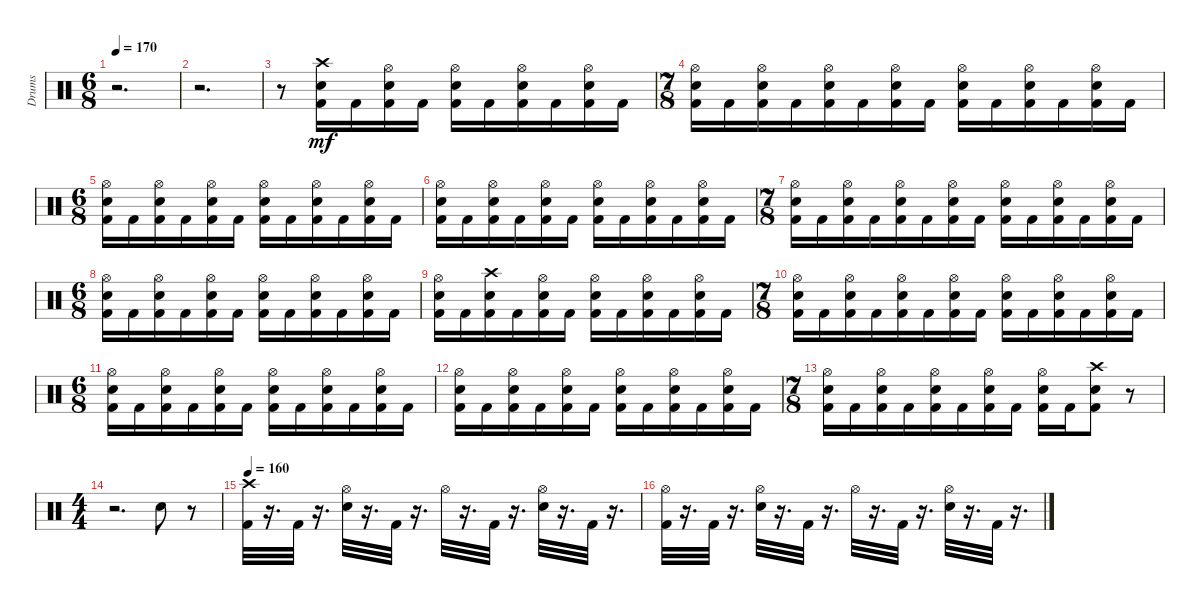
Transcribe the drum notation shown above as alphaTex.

\track ("Drums               " "Drums     ") {instrument percussion}
\staff {score}
\articulation defaults
\ts (6 8)
\tempo 170
\clef neutral
\ks c
r.2{d dy mf} |
r.2{d} |
r.8 ("Kick (hit) 2" "Snare (hit) 2" "Crash high (hit)").16 "Kick (hit) 2".16 ("Kick (hit) 2" "Snare (hit) 2" "Hi-Hat (open)").16 "Kick (hit) 2".16 ("Kick (hit) 2" "Snare (hit) 2" "Hi-Hat (open)").16 "Kick (hit) 2".16 ("Kick (hit) 2" "Snare (hit) 2" "Hi-Hat (open)").16 "Kick (hit) 2".16 ("Kick (hit) 2" "Snare (hit) 2" "Hi-Hat (open)").16 "Kick (hit) 2".16 |
\ts (7 8)
("Kick (hit) 2" "Snare (hit) 2" "Hi-Hat (open)").16 "Kick (hit) 2".16 ("Kick (hit) 2" "Snare (hit) 2" "Hi-Hat (open)").16 "Kick (hit) 2".16 ("Kick (hit) 2" "Snare (hit) 2" "Hi-Hat (open)").16 "Kick (hit) 2".16 ("Kick (hit) 2" "Snare (hit) 2" "Hi-Hat (open)").16 "Kick (hit) 2".16 ("Kick (hit) 2" "Snare (hit) 2" "Hi-Hat (open)").16 "Kick (hit) 2".16 ("Kick (hit) 2" "Snare (hit) 2" "Hi-Hat (open)").16 "Kick (hit) 2".16 ("Kick (hit) 2" "Snare (hit) 2" "Hi-Hat (open)").16 "Kick (hit) 2".16 |
\ts (6 8)
("Kick (hit) 2" "Snare (hit) 2" "Hi-Hat (open)").16 "Kick (hit) 2".16 ("Kick (hit) 2" "Snare (hit) 2" "Hi-Hat (open)").16 "Kick (hit) 2".16 ("Kick (hit) 2" "Snare (hit) 2" "Hi-Hat (open)").16 "Kick (hit) 2".16 ("Kick (hit) 2" "Snare (hit) 2" "Hi-Hat (open)").16 "Kick (hit) 2".16 ("Kick (hit) 2" "Snare (hit) 2" "Hi-Hat (open)").16 "Kick (hit) 2".16 ("Kick (hit) 2" "Snare (hit) 2" "Hi-Hat (open)").16 "Kick (hit) 2".16 |
("Kick (hit) 2" "Snare (hit) 2" "Hi-Hat (open)").16 "Kick (hit) 2".16 ("Kick (hit) 2" "Snare (hit) 2" "Hi-Hat (open)").16 "Kick (hit) 2".16 ("Kick (hit) 2" "Snare (hit) 2" "Hi-Hat (open)").16 "Kick (hit) 2".16 ("Kick (hit) 2" "Snare (hit) 2" "Hi-Hat (open)").16 "Kick (hit) 2".16 ("Kick (hit) 2" "Snare (hit) 2" "Hi-Hat (open)").16 "Kick (hit) 2".16 ("Kick (hit) 2" "Snare (hit) 2" "Hi-Hat (open)").16 "Kick (hit) 2".16 |
\ts (7 8)
("Kick (hit) 2" "Snare (hit) 2" "Hi-Hat (open)").16 "Kick (hit) 2".16 ("Kick (hit) 2" "Snare (hit) 2" "Hi-Hat (open)").16 "Kick (hit) 2".16 ("Kick (hit) 2" "Snare (hit) 2" "Hi-Hat (open)").16 "Kick (hit) 2".16 ("Kick (hit) 2" "Snare (hit) 2" "Hi-Hat (open)").16 "Kick (hit) 2".16 ("Kick (hit) 2" "Snare (hit) 2" "Hi-Hat (open)").16 "Kick (hit) 2".16 ("Kick (hit) 2" "Snare (hit) 2" "Hi-Hat (open)").16 "Kick (hit) 2".16 ("Kick (hit) 2" "Snare (hit) 2" "Hi-Hat (open)").16 "Kick (hit) 2".16 |
\ts (6 8)
("Kick (hit) 2" "Snare (hit) 2" "Hi-Hat (open)").16 "Kick (hit) 2".16 ("Kick (hit) 2" "Snare (hit) 2" "Hi-Hat (open)").16 "Kick (hit) 2".16 ("Kick (hit) 2" "Snare (hit) 2" "Hi-Hat (open)").16 "Kick (hit) 2".16 ("Kick (hit) 2" "Snare (hit) 2" "Hi-Hat (open)").16 "Kick (hit) 2".16 ("Kick (hit) 2" "Snare (hit) 2" "Hi-Hat (open)").16 "Kick (hit) 2".16 ("Kick (hit) 2" "Snare (hit) 2" "Hi-Hat (open)").16 "Kick (hit) 2".16 |
("Kick (hit) 2" "Snare (hit) 2" "Hi-Hat (open)").16 "Kick (hit) 2".16 ("Kick (hit) 2" "Snare (hit) 2" "Crash high (hit)").16 "Kick (hit) 2".16 ("Kick (hit) 2" "Snare (hit) 2" "Hi-Hat (open)").16 "Kick (hit) 2".16 ("Kick (hit) 2" "Snare (hit) 2" "Hi-Hat (open)").16 "Kick (hit) 2".16 ("Kick (hit) 2" "Snare (hit) 2" "Hi-Hat (open)").16 "Kick (hit) 2".16 ("Kick (hit) 2" "Snare (hit) 2" "Hi-Hat (open)").16 "Kick (hit) 2".16 |
\ts (7 8)
("Kick (hit) 2" "Snare (hit) 2" "Hi-Hat (open)").16 "Kick (hit) 2".16 ("Kick (hit) 2" "Snare (hit) 2" "Hi-Hat (open)").16 "Kick (hit) 2".16 ("Kick (hit) 2" "Snare (hit) 2" "Hi-Hat (open)").16 "Kick (hit) 2".16 ("Kick (hit) 2" "Snare (hit) 2" "Hi-Hat (open)").16 "Kick (hit) 2".16 ("Kick (hit) 2" "Snare (hit) 2" "Hi-Hat (open)").16 "Kick (hit) 2".16 ("Kick (hit) 2" "Snare (hit) 2" "Hi-Hat (open)").16 "Kick (hit) 2".16 ("Kick (hit) 2" "Snare (hit) 2" "Hi-Hat (open)").16 "Kick (hit) 2".16 |
\ts (6 8)
("Kick (hit) 2" "Snare (hit) 2" "Hi-Hat (open)").16 "Kick (hit) 2".16 ("Kick (hit) 2" "Snare (hit) 2" "Hi-Hat (open)").16 "Kick (hit) 2".16 ("Kick (hit) 2" "Snare (hit) 2" "Hi-Hat (open)").16 "Kick (hit) 2".16 ("Kick (hit) 2" "Snare (hit) 2" "Hi-Hat (open)").16 "Kick (hit) 2".16 ("Kick (hit) 2" "Snare (hit) 2" "Hi-Hat (open)").16 "Kick (hit) 2".16 ("Kick (hit) 2" "Snare (hit) 2" "Hi-Hat (open)").16 "Kick (hit) 2".16 |
("Kick (hit) 2" "Snare (hit) 2" "Hi-Hat (open)").16 "Kick (hit) 2".16 ("Kick (hit) 2" "Snare (hit) 2" "Hi-Hat (open)").16 "Kick (hit) 2".16 ("Kick (hit) 2" "Snare (hit) 2" "Hi-Hat (open)").16 "Kick (hit) 2".16 ("Kick (hit) 2" "Snare (hit) 2" "Hi-Hat (open)").16 "Kick (hit) 2".16 ("Kick (hit) 2" "Snare (hit) 2" "Hi-Hat (open)").16 "Kick (hit) 2".16 ("Kick (hit) 2" "Snare (hit) 2" "Hi-Hat (open)").16 "Kick (hit) 2".16 |
\ts (7 8)
("Kick (hit) 2" "Snare (hit) 2" "Hi-Hat (open)").16 "Kick (hit) 2".16 ("Kick (hit) 2" "Snare (hit) 2" "Hi-Hat (open)").16 "Kick (hit) 2".16 ("Kick (hit) 2" "Snare (hit) 2" "Hi-Hat (open)").16 "Kick (hit) 2".16 ("Kick (hit) 2" "Snare (hit) 2" "Hi-Hat (open)").16 "Kick (hit) 2".16 ("Kick (hit) 2" "Snare (hit) 2" "Hi-Hat (open)").16 "Kick (hit) 2".16 ("Kick (hit) 2" "Snare (hit) 2" "Crash high (hit)").8 r.8 |
\ts (4 4)
r.2{d} "Snare (hit) 2".8 r.8 |
\tempo 160
("Kick (hit) 2" "Crash high (hit)").32 r.16{d} "Kick (hit) 2".32 r.16{d} ("Hi-Hat (open)" "Snare (hit) 2").32 r.16{d} "Kick (hit) 2".32 r.16{d} "Hi-Hat (open)".32 r.16{d} "Kick (hit) 2".32 r.16{d} ("Hi-Hat (open)" "Snare (hit) 2").32 r.16{d} "Kick (hit) 2".32 r.16{d} |
("Kick (hit) 2" "Hi-Hat (open)").32 r.16{d} "Kick (hit) 2".32 r.16{d} ("Hi-Hat (open)" "Snare (hit) 2").32 r.16{d} "Kick (hit) 2".32 r.16{d} "Hi-Hat (open)".32 r.16{d} "Kick (hit) 2".32 r.16{d} ("Hi-Hat (open)" "Snare (hit) 2").32 r.16{d} "Kick (hit) 2".32 r.16{d}
